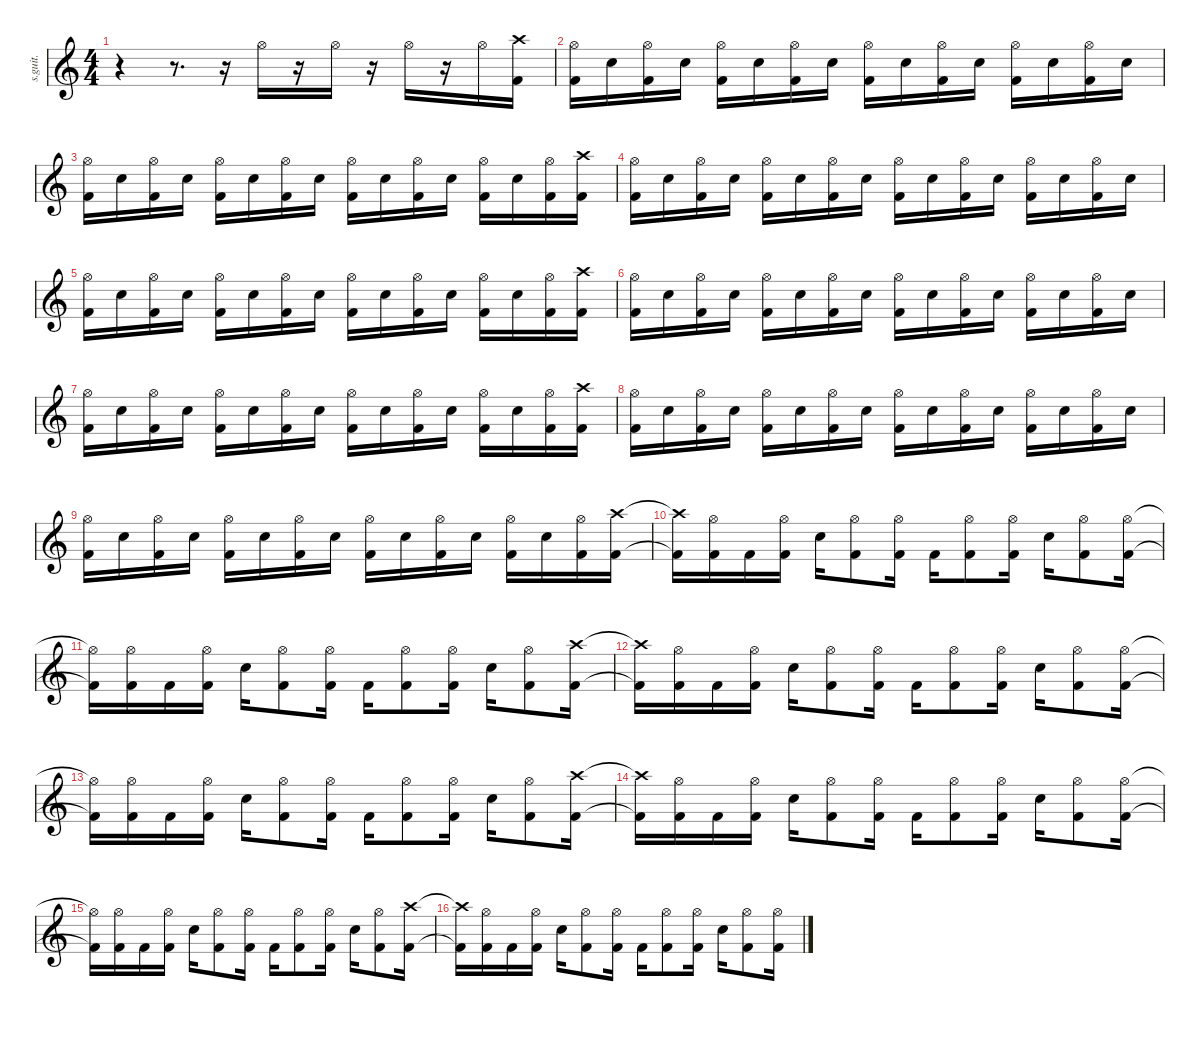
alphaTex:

\defaultSystemsLayout 4
\hideDynamics
\bracketExtendMode nobrackets
\track ("Tomas Haake" "s.guit.") {instrument percussion}
\staff {score}
\articulation defaults
\ts (4 4)
\tempo (110 hide)
\clef g2
\ks c
r.4{dy f} r.8{d} r.16 "Hi-Hat (open)".16{lyrics (0 "") lyrics (1 "") lyrics (2 "") lyrics (3 "") lyrics (4 "")} r.16 "Hi-Hat (open)".16{lyrics (0 "") lyrics (1 "") lyrics (2 "") lyrics (3 "") lyrics (4 "")} r.16 "Hi-Hat (open)".16{lyrics (0 "") lyrics (1 "") lyrics (2 "") lyrics (3 "") lyrics (4 "")} r.16 "Hi-Hat (open)".16{lyrics (0 "") lyrics (1 "") lyrics (2 "") lyrics (3 "") lyrics (4 "")} ("Crash high (hit)" "Kick (hit) 2").16{lyrics (0 "") lyrics (1 "") lyrics (2 "") lyrics (3 "") lyrics (4 "")} |
("Hi-Hat (open)" "Kick (hit) 2").16{lyrics (0 "") lyrics (1 "") lyrics (2 "") lyrics (3 "") lyrics (4 "")} "Snare (hit) 2".16{lyrics (0 "") lyrics (1 "") lyrics (2 "") lyrics (3 "") lyrics (4 "")} ("Hi-Hat (open)" "Kick (hit) 2").16{lyrics (0 "") lyrics (1 "") lyrics (2 "") lyrics (3 "") lyrics (4 "")} "Snare (hit) 2".16{lyrics (0 "") lyrics (1 "") lyrics (2 "") lyrics (3 "") lyrics (4 "")} ("Hi-Hat (open)" "Kick (hit) 2").16{lyrics (0 "") lyrics (1 "") lyrics (2 "") lyrics (3 "") lyrics (4 "")} "Snare (hit) 2".16{lyrics (0 "") lyrics (1 "") lyrics (2 "") lyrics (3 "") lyrics (4 "")} ("Hi-Hat (open)" "Kick (hit) 2").16{lyrics (0 "") lyrics (1 "") lyrics (2 "") lyrics (3 "") lyrics (4 "")} "Snare (hit) 2".16{lyrics (0 "") lyrics (1 "") lyrics (2 "") lyrics (3 "") lyrics (4 "")} ("Hi-Hat (open)" "Kick (hit) 2").16{lyrics (0 "") lyrics (1 "") lyrics (2 "") lyrics (3 "") lyrics (4 "")} "Snare (hit) 2".16{lyrics (0 "") lyrics (1 "") lyrics (2 "") lyrics (3 "") lyrics (4 "")} ("Hi-Hat (open)" "Kick (hit) 2").16{lyrics (0 "") lyrics (1 "") lyrics (2 "") lyrics (3 "") lyrics (4 "")} "Snare (hit) 2".16{lyrics (0 "") lyrics (1 "") lyrics (2 "") lyrics (3 "") lyrics (4 "")} ("Hi-Hat (open)" "Kick (hit) 2").16{lyrics (0 "") lyrics (1 "") lyrics (2 "") lyrics (3 "") lyrics (4 "")} "Snare (hit) 2".16{lyrics (0 "") lyrics (1 "") lyrics (2 "") lyrics (3 "") lyrics (4 "")} ("Hi-Hat (open)" "Kick (hit) 2").16{lyrics (0 "") lyrics (1 "") lyrics (2 "") lyrics (3 "") lyrics (4 "")} "Snare (hit) 2".16{lyrics (0 "") lyrics (1 "") lyrics (2 "") lyrics (3 "") lyrics (4 "")} |
("Hi-Hat (open)" "Kick (hit) 2").16{lyrics (0 "") lyrics (1 "") lyrics (2 "") lyrics (3 "") lyrics (4 "")} "Snare (hit) 2".16{lyrics (0 "") lyrics (1 "") lyrics (2 "") lyrics (3 "") lyrics (4 "")} ("Hi-Hat (open)" "Kick (hit) 2").16{lyrics (0 "") lyrics (1 "") lyrics (2 "") lyrics (3 "") lyrics (4 "")} "Snare (hit) 2".16{lyrics (0 "") lyrics (1 "") lyrics (2 "") lyrics (3 "") lyrics (4 "")} ("Hi-Hat (open)" "Kick (hit) 2").16{lyrics (0 "") lyrics (1 "") lyrics (2 "") lyrics (3 "") lyrics (4 "")} "Snare (hit) 2".16{lyrics (0 "") lyrics (1 "") lyrics (2 "") lyrics (3 "") lyrics (4 "")} ("Hi-Hat (open)" "Kick (hit) 2").16{lyrics (0 "") lyrics (1 "") lyrics (2 "") lyrics (3 "") lyrics (4 "")} "Snare (hit) 2".16{lyrics (0 "") lyrics (1 "") lyrics (2 "") lyrics (3 "") lyrics (4 "")} ("Hi-Hat (open)" "Kick (hit) 2").16{lyrics (0 "") lyrics (1 "") lyrics (2 "") lyrics (3 "") lyrics (4 "")} "Snare (hit) 2".16{lyrics (0 "") lyrics (1 "") lyrics (2 "") lyrics (3 "") lyrics (4 "")} ("Hi-Hat (open)" "Kick (hit) 2").16{lyrics (0 "") lyrics (1 "") lyrics (2 "") lyrics (3 "") lyrics (4 "")} "Snare (hit) 2".16{lyrics (0 "") lyrics (1 "") lyrics (2 "") lyrics (3 "") lyrics (4 "")} ("Hi-Hat (open)" "Kick (hit) 2").16{lyrics (0 "") lyrics (1 "") lyrics (2 "") lyrics (3 "") lyrics (4 "")} "Snare (hit) 2".16{lyrics (0 "") lyrics (1 "") lyrics (2 "") lyrics (3 "") lyrics (4 "")} ("Hi-Hat (open)" "Kick (hit) 2").16{lyrics (0 "") lyrics (1 "") lyrics (2 "") lyrics (3 "") lyrics (4 "")} ("Crash high (hit)" "Kick (hit) 2").16{lyrics (0 "") lyrics (1 "") lyrics (2 "") lyrics (3 "") lyrics (4 "")} |
("Hi-Hat (open)" "Kick (hit) 2").16{lyrics (0 "") lyrics (1 "") lyrics (2 "") lyrics (3 "") lyrics (4 "")} "Snare (hit) 2".16{lyrics (0 "") lyrics (1 "") lyrics (2 "") lyrics (3 "") lyrics (4 "")} ("Hi-Hat (open)" "Kick (hit) 2").16{lyrics (0 "") lyrics (1 "") lyrics (2 "") lyrics (3 "") lyrics (4 "")} "Snare (hit) 2".16{lyrics (0 "") lyrics (1 "") lyrics (2 "") lyrics (3 "") lyrics (4 "")} ("Hi-Hat (open)" "Kick (hit) 2").16{lyrics (0 "") lyrics (1 "") lyrics (2 "") lyrics (3 "") lyrics (4 "")} "Snare (hit) 2".16{lyrics (0 "") lyrics (1 "") lyrics (2 "") lyrics (3 "") lyrics (4 "")} ("Hi-Hat (open)" "Kick (hit) 2").16{lyrics (0 "") lyrics (1 "") lyrics (2 "") lyrics (3 "") lyrics (4 "")} "Snare (hit) 2".16{lyrics (0 "") lyrics (1 "") lyrics (2 "") lyrics (3 "") lyrics (4 "")} ("Hi-Hat (open)" "Kick (hit) 2").16{lyrics (0 "") lyrics (1 "") lyrics (2 "") lyrics (3 "") lyrics (4 "")} "Snare (hit) 2".16{lyrics (0 "") lyrics (1 "") lyrics (2 "") lyrics (3 "") lyrics (4 "")} ("Hi-Hat (open)" "Kick (hit) 2").16{lyrics (0 "") lyrics (1 "") lyrics (2 "") lyrics (3 "") lyrics (4 "")} "Snare (hit) 2".16{lyrics (0 "") lyrics (1 "") lyrics (2 "") lyrics (3 "") lyrics (4 "")} ("Hi-Hat (open)" "Kick (hit) 2").16{lyrics (0 "") lyrics (1 "") lyrics (2 "") lyrics (3 "") lyrics (4 "")} "Snare (hit) 2".16{lyrics (0 "") lyrics (1 "") lyrics (2 "") lyrics (3 "") lyrics (4 "")} ("Hi-Hat (open)" "Kick (hit) 2").16{lyrics (0 "") lyrics (1 "") lyrics (2 "") lyrics (3 "") lyrics (4 "")} "Snare (hit) 2".16{lyrics (0 "") lyrics (1 "") lyrics (2 "") lyrics (3 "") lyrics (4 "")} |
("Hi-Hat (open)" "Kick (hit) 2").16{lyrics (0 "") lyrics (1 "") lyrics (2 "") lyrics (3 "") lyrics (4 "")} "Snare (hit) 2".16{lyrics (0 "") lyrics (1 "") lyrics (2 "") lyrics (3 "") lyrics (4 "")} ("Hi-Hat (open)" "Kick (hit) 2").16{lyrics (0 "") lyrics (1 "") lyrics (2 "") lyrics (3 "") lyrics (4 "")} "Snare (hit) 2".16{lyrics (0 "") lyrics (1 "") lyrics (2 "") lyrics (3 "") lyrics (4 "")} ("Hi-Hat (open)" "Kick (hit) 2").16{lyrics (0 "") lyrics (1 "") lyrics (2 "") lyrics (3 "") lyrics (4 "")} "Snare (hit) 2".16{lyrics (0 "") lyrics (1 "") lyrics (2 "") lyrics (3 "") lyrics (4 "")} ("Hi-Hat (open)" "Kick (hit) 2").16{lyrics (0 "") lyrics (1 "") lyrics (2 "") lyrics (3 "") lyrics (4 "")} "Snare (hit) 2".16{lyrics (0 "") lyrics (1 "") lyrics (2 "") lyrics (3 "") lyrics (4 "")} ("Hi-Hat (open)" "Kick (hit) 2").16{lyrics (0 "") lyrics (1 "") lyrics (2 "") lyrics (3 "") lyrics (4 "")} "Snare (hit) 2".16{lyrics (0 "") lyrics (1 "") lyrics (2 "") lyrics (3 "") lyrics (4 "")} ("Hi-Hat (open)" "Kick (hit) 2").16{lyrics (0 "") lyrics (1 "") lyrics (2 "") lyrics (3 "") lyrics (4 "")} "Snare (hit) 2".16{lyrics (0 "") lyrics (1 "") lyrics (2 "") lyrics (3 "") lyrics (4 "")} ("Hi-Hat (open)" "Kick (hit) 2").16{lyrics (0 "") lyrics (1 "") lyrics (2 "") lyrics (3 "") lyrics (4 "")} "Snare (hit) 2".16{lyrics (0 "") lyrics (1 "") lyrics (2 "") lyrics (3 "") lyrics (4 "")} ("Hi-Hat (open)" "Kick (hit) 2").16{lyrics (0 "") lyrics (1 "") lyrics (2 "") lyrics (3 "") lyrics (4 "")} ("Crash high (hit)" "Kick (hit) 2").16{lyrics (0 "") lyrics (1 "") lyrics (2 "") lyrics (3 "") lyrics (4 "")} |
("Hi-Hat (open)" "Kick (hit) 2").16{lyrics (0 "") lyrics (1 "") lyrics (2 "") lyrics (3 "") lyrics (4 "")} "Snare (hit) 2".16{lyrics (0 "") lyrics (1 "") lyrics (2 "") lyrics (3 "") lyrics (4 "")} ("Hi-Hat (open)" "Kick (hit) 2").16{lyrics (0 "") lyrics (1 "") lyrics (2 "") lyrics (3 "") lyrics (4 "")} "Snare (hit) 2".16{lyrics (0 "") lyrics (1 "") lyrics (2 "") lyrics (3 "") lyrics (4 "")} ("Hi-Hat (open)" "Kick (hit) 2").16{lyrics (0 "") lyrics (1 "") lyrics (2 "") lyrics (3 "") lyrics (4 "")} "Snare (hit) 2".16{lyrics (0 "") lyrics (1 "") lyrics (2 "") lyrics (3 "") lyrics (4 "")} ("Hi-Hat (open)" "Kick (hit) 2").16{lyrics (0 "") lyrics (1 "") lyrics (2 "") lyrics (3 "") lyrics (4 "")} "Snare (hit) 2".16{lyrics (0 "") lyrics (1 "") lyrics (2 "") lyrics (3 "") lyrics (4 "")} ("Hi-Hat (open)" "Kick (hit) 2").16{lyrics (0 "") lyrics (1 "") lyrics (2 "") lyrics (3 "") lyrics (4 "")} "Snare (hit) 2".16{lyrics (0 "") lyrics (1 "") lyrics (2 "") lyrics (3 "") lyrics (4 "")} ("Hi-Hat (open)" "Kick (hit) 2").16{lyrics (0 "") lyrics (1 "") lyrics (2 "") lyrics (3 "") lyrics (4 "")} "Snare (hit) 2".16{lyrics (0 "") lyrics (1 "") lyrics (2 "") lyrics (3 "") lyrics (4 "")} ("Hi-Hat (open)" "Kick (hit) 2").16{lyrics (0 "") lyrics (1 "") lyrics (2 "") lyrics (3 "") lyrics (4 "")} "Snare (hit) 2".16{lyrics (0 "") lyrics (1 "") lyrics (2 "") lyrics (3 "") lyrics (4 "")} ("Hi-Hat (open)" "Kick (hit) 2").16{lyrics (0 "") lyrics (1 "") lyrics (2 "") lyrics (3 "") lyrics (4 "")} "Snare (hit) 2".16{lyrics (0 "") lyrics (1 "") lyrics (2 "") lyrics (3 "") lyrics (4 "")} |
("Hi-Hat (open)" "Kick (hit) 2").16{lyrics (0 "") lyrics (1 "") lyrics (2 "") lyrics (3 "") lyrics (4 "")} "Snare (hit) 2".16{lyrics (0 "") lyrics (1 "") lyrics (2 "") lyrics (3 "") lyrics (4 "")} ("Hi-Hat (open)" "Kick (hit) 2").16{lyrics (0 "") lyrics (1 "") lyrics (2 "") lyrics (3 "") lyrics (4 "")} "Snare (hit) 2".16{lyrics (0 "") lyrics (1 "") lyrics (2 "") lyrics (3 "") lyrics (4 "")} ("Hi-Hat (open)" "Kick (hit) 2").16{lyrics (0 "") lyrics (1 "") lyrics (2 "") lyrics (3 "") lyrics (4 "")} "Snare (hit) 2".16{lyrics (0 "") lyrics (1 "") lyrics (2 "") lyrics (3 "") lyrics (4 "")} ("Hi-Hat (open)" "Kick (hit) 2").16{lyrics (0 "") lyrics (1 "") lyrics (2 "") lyrics (3 "") lyrics (4 "")} "Snare (hit) 2".16{lyrics (0 "") lyrics (1 "") lyrics (2 "") lyrics (3 "") lyrics (4 "")} ("Hi-Hat (open)" "Kick (hit) 2").16{lyrics (0 "") lyrics (1 "") lyrics (2 "") lyrics (3 "") lyrics (4 "")} "Snare (hit) 2".16{lyrics (0 "") lyrics (1 "") lyrics (2 "") lyrics (3 "") lyrics (4 "")} ("Hi-Hat (open)" "Kick (hit) 2").16{lyrics (0 "") lyrics (1 "") lyrics (2 "") lyrics (3 "") lyrics (4 "")} "Snare (hit) 2".16{lyrics (0 "") lyrics (1 "") lyrics (2 "") lyrics (3 "") lyrics (4 "")} ("Hi-Hat (open)" "Kick (hit) 2").16{lyrics (0 "") lyrics (1 "") lyrics (2 "") lyrics (3 "") lyrics (4 "")} "Snare (hit) 2".16{lyrics (0 "") lyrics (1 "") lyrics (2 "") lyrics (3 "") lyrics (4 "")} ("Hi-Hat (open)" "Kick (hit) 2").16{lyrics (0 "") lyrics (1 "") lyrics (2 "") lyrics (3 "") lyrics (4 "")} ("Crash high (hit)" "Kick (hit) 2").16{lyrics (0 "") lyrics (1 "") lyrics (2 "") lyrics (3 "") lyrics (4 "")} |
("Hi-Hat (open)" "Kick (hit) 2").16{lyrics (0 "") lyrics (1 "") lyrics (2 "") lyrics (3 "") lyrics (4 "")} "Snare (hit) 2".16{lyrics (0 "") lyrics (1 "") lyrics (2 "") lyrics (3 "") lyrics (4 "")} ("Hi-Hat (open)" "Kick (hit) 2").16{lyrics (0 "") lyrics (1 "") lyrics (2 "") lyrics (3 "") lyrics (4 "")} "Snare (hit) 2".16{lyrics (0 "") lyrics (1 "") lyrics (2 "") lyrics (3 "") lyrics (4 "")} ("Hi-Hat (open)" "Kick (hit) 2").16{lyrics (0 "") lyrics (1 "") lyrics (2 "") lyrics (3 "") lyrics (4 "")} "Snare (hit) 2".16{lyrics (0 "") lyrics (1 "") lyrics (2 "") lyrics (3 "") lyrics (4 "")} ("Hi-Hat (open)" "Kick (hit) 2").16{lyrics (0 "") lyrics (1 "") lyrics (2 "") lyrics (3 "") lyrics (4 "")} "Snare (hit) 2".16{lyrics (0 "") lyrics (1 "") lyrics (2 "") lyrics (3 "") lyrics (4 "")} ("Hi-Hat (open)" "Kick (hit) 2").16{lyrics (0 "") lyrics (1 "") lyrics (2 "") lyrics (3 "") lyrics (4 "")} "Snare (hit) 2".16{lyrics (0 "") lyrics (1 "") lyrics (2 "") lyrics (3 "") lyrics (4 "")} ("Hi-Hat (open)" "Kick (hit) 2").16{lyrics (0 "") lyrics (1 "") lyrics (2 "") lyrics (3 "") lyrics (4 "")} "Snare (hit) 2".16{lyrics (0 "") lyrics (1 "") lyrics (2 "") lyrics (3 "") lyrics (4 "")} ("Hi-Hat (open)" "Kick (hit) 2").16{lyrics (0 "") lyrics (1 "") lyrics (2 "") lyrics (3 "") lyrics (4 "")} "Snare (hit) 2".16{lyrics (0 "") lyrics (1 "") lyrics (2 "") lyrics (3 "") lyrics (4 "")} ("Hi-Hat (open)" "Kick (hit) 2").16{lyrics (0 "") lyrics (1 "") lyrics (2 "") lyrics (3 "") lyrics (4 "")} "Snare (hit) 2".16{lyrics (0 "") lyrics (1 "") lyrics (2 "") lyrics (3 "") lyrics (4 "")} |
("Hi-Hat (open)" "Kick (hit) 2").16{lyrics (0 "") lyrics (1 "") lyrics (2 "") lyrics (3 "") lyrics (4 "")} "Snare (hit) 2".16{lyrics (0 "") lyrics (1 "") lyrics (2 "") lyrics (3 "") lyrics (4 "")} ("Hi-Hat (open)" "Kick (hit) 2").16{lyrics (0 "") lyrics (1 "") lyrics (2 "") lyrics (3 "") lyrics (4 "")} "Snare (hit) 2".16{lyrics (0 "") lyrics (1 "") lyrics (2 "") lyrics (3 "") lyrics (4 "")} ("Hi-Hat (open)" "Kick (hit) 2").16{lyrics (0 "") lyrics (1 "") lyrics (2 "") lyrics (3 "") lyrics (4 "")} "Snare (hit) 2".16{lyrics (0 "") lyrics (1 "") lyrics (2 "") lyrics (3 "") lyrics (4 "")} ("Hi-Hat (open)" "Kick (hit) 2").16{lyrics (0 "") lyrics (1 "") lyrics (2 "") lyrics (3 "") lyrics (4 "")} "Snare (hit) 2".16{lyrics (0 "") lyrics (1 "") lyrics (2 "") lyrics (3 "") lyrics (4 "")} ("Hi-Hat (open)" "Kick (hit) 2").16{lyrics (0 "") lyrics (1 "") lyrics (2 "") lyrics (3 "") lyrics (4 "")} "Snare (hit) 2".16{lyrics (0 "") lyrics (1 "") lyrics (2 "") lyrics (3 "") lyrics (4 "")} ("Hi-Hat (open)" "Kick (hit) 2").16{lyrics (0 "") lyrics (1 "") lyrics (2 "") lyrics (3 "") lyrics (4 "")} "Snare (hit) 2".16{lyrics (0 "") lyrics (1 "") lyrics (2 "") lyrics (3 "") lyrics (4 "")} ("Hi-Hat (open)" "Kick (hit) 2").16{lyrics (0 "") lyrics (1 "") lyrics (2 "") lyrics (3 "") lyrics (4 "")} "Snare (hit) 2".16{lyrics (0 "") lyrics (1 "") lyrics (2 "") lyrics (3 "") lyrics (4 "")} ("Hi-Hat (open)" "Kick (hit) 2").16{lyrics (0 "") lyrics (1 "") lyrics (2 "") lyrics (3 "") lyrics (4 "")} ("Crash high (hit)" "Kick (hit) 2").16{lyrics (0 "") lyrics (1 "") lyrics (2 "") lyrics (3 "") lyrics (4 "")} |
("Crash high (hit)"{t} "Kick (hit) 2"{t}).16{lyrics (0 "") lyrics (1 "") lyrics (2 "") lyrics (3 "") lyrics (4 "")} ("Hi-Hat (open)" "Kick (hit) 2").16{lyrics (0 "") lyrics (1 "") lyrics (2 "") lyrics (3 "") lyrics (4 "")} "Kick (hit) 2".16{lyrics (0 "") lyrics (1 "") lyrics (2 "") lyrics (3 "") lyrics (4 "")} ("Hi-Hat (open)" "Kick (hit) 2").16{lyrics (0 "") lyrics (1 "") lyrics (2 "") lyrics (3 "") lyrics (4 "")} "Snare (hit) 2".16{lyrics (0 "") lyrics (1 "") lyrics (2 "") lyrics (3 "") lyrics (4 "")} ("Hi-Hat (open)" "Kick (hit) 2").8{lyrics (0 "") lyrics (1 "") lyrics (2 "") lyrics (3 "") lyrics (4 "")} ("Hi-Hat (open)" "Kick (hit) 2").16{lyrics (0 "") lyrics (1 "") lyrics (2 "") lyrics (3 "") lyrics (4 "")} "Kick (hit) 2".16{lyrics (0 "") lyrics (1 "") lyrics (2 "") lyrics (3 "") lyrics (4 "")} ("Hi-Hat (open)" "Kick (hit) 2").8{lyrics (0 "") lyrics (1 "") lyrics (2 "") lyrics (3 "") lyrics (4 "")} ("Hi-Hat (open)" "Kick (hit) 2").16{lyrics (0 "") lyrics (1 "") lyrics (2 "") lyrics (3 "") lyrics (4 "")} "Snare (hit) 2".16{lyrics (0 "") lyrics (1 "") lyrics (2 "") lyrics (3 "") lyrics (4 "")} ("Hi-Hat (open)" "Kick (hit) 2").8{lyrics (0 "") lyrics (1 "") lyrics (2 "") lyrics (3 "") lyrics (4 "")} ("Hi-Hat (open)" "Kick (hit) 2").16{lyrics (0 "") lyrics (1 "") lyrics (2 "") lyrics (3 "") lyrics (4 "")} |
("Hi-Hat (open)"{t} "Kick (hit) 2"{t}).16{lyrics (0 "") lyrics (1 "") lyrics (2 "") lyrics (3 "") lyrics (4 "")} ("Hi-Hat (open)" "Kick (hit) 2").16{lyrics (0 "") lyrics (1 "") lyrics (2 "") lyrics (3 "") lyrics (4 "")} "Kick (hit) 2".16{lyrics (0 "") lyrics (1 "") lyrics (2 "") lyrics (3 "") lyrics (4 "")} ("Hi-Hat (open)" "Kick (hit) 2").16{lyrics (0 "") lyrics (1 "") lyrics (2 "") lyrics (3 "") lyrics (4 "")} "Snare (hit) 2".16{lyrics (0 "") lyrics (1 "") lyrics (2 "") lyrics (3 "") lyrics (4 "")} ("Hi-Hat (open)" "Kick (hit) 2").8{lyrics (0 "") lyrics (1 "") lyrics (2 "") lyrics (3 "") lyrics (4 "")} ("Hi-Hat (open)" "Kick (hit) 2").16{lyrics (0 "") lyrics (1 "") lyrics (2 "") lyrics (3 "") lyrics (4 "")} "Kick (hit) 2".16{lyrics (0 "") lyrics (1 "") lyrics (2 "") lyrics (3 "") lyrics (4 "")} ("Hi-Hat (open)" "Kick (hit) 2").8{lyrics (0 "") lyrics (1 "") lyrics (2 "") lyrics (3 "") lyrics (4 "")} ("Hi-Hat (open)" "Kick (hit) 2").16{lyrics (0 "") lyrics (1 "") lyrics (2 "") lyrics (3 "") lyrics (4 "")} "Snare (hit) 2".16{lyrics (0 "") lyrics (1 "") lyrics (2 "") lyrics (3 "") lyrics (4 "")} ("Hi-Hat (open)" "Kick (hit) 2").8{lyrics (0 "") lyrics (1 "") lyrics (2 "") lyrics (3 "") lyrics (4 "")} ("Crash high (hit)" "Kick (hit) 2").16{lyrics (0 "") lyrics (1 "") lyrics (2 "") lyrics (3 "") lyrics (4 "")} |
("Crash high (hit)"{t} "Kick (hit) 2"{t}).16{lyrics (0 "") lyrics (1 "") lyrics (2 "") lyrics (3 "") lyrics (4 "")} ("Hi-Hat (open)" "Kick (hit) 2").16{lyrics (0 "") lyrics (1 "") lyrics (2 "") lyrics (3 "") lyrics (4 "")} "Kick (hit) 2".16{lyrics (0 "") lyrics (1 "") lyrics (2 "") lyrics (3 "") lyrics (4 "")} ("Hi-Hat (open)" "Kick (hit) 2").16{lyrics (0 "") lyrics (1 "") lyrics (2 "") lyrics (3 "") lyrics (4 "")} "Snare (hit) 2".16{lyrics (0 "") lyrics (1 "") lyrics (2 "") lyrics (3 "") lyrics (4 "")} ("Hi-Hat (open)" "Kick (hit) 2").8{lyrics (0 "") lyrics (1 "") lyrics (2 "") lyrics (3 "") lyrics (4 "")} ("Hi-Hat (open)" "Kick (hit) 2").16{lyrics (0 "") lyrics (1 "") lyrics (2 "") lyrics (3 "") lyrics (4 "")} "Kick (hit) 2".16{lyrics (0 "") lyrics (1 "") lyrics (2 "") lyrics (3 "") lyrics (4 "")} ("Hi-Hat (open)" "Kick (hit) 2").8{lyrics (0 "") lyrics (1 "") lyrics (2 "") lyrics (3 "") lyrics (4 "")} ("Hi-Hat (open)" "Kick (hit) 2").16{lyrics (0 "") lyrics (1 "") lyrics (2 "") lyrics (3 "") lyrics (4 "")} "Snare (hit) 2".16{lyrics (0 "") lyrics (1 "") lyrics (2 "") lyrics (3 "") lyrics (4 "")} ("Hi-Hat (open)" "Kick (hit) 2").8{lyrics (0 "") lyrics (1 "") lyrics (2 "") lyrics (3 "") lyrics (4 "")} ("Hi-Hat (open)" "Kick (hit) 2").16{lyrics (0 "") lyrics (1 "") lyrics (2 "") lyrics (3 "") lyrics (4 "")} |
("Hi-Hat (open)"{t} "Kick (hit) 2"{t}).16{lyrics (0 "") lyrics (1 "") lyrics (2 "") lyrics (3 "") lyrics (4 "")} ("Hi-Hat (open)" "Kick (hit) 2").16{lyrics (0 "") lyrics (1 "") lyrics (2 "") lyrics (3 "") lyrics (4 "")} "Kick (hit) 2".16{lyrics (0 "") lyrics (1 "") lyrics (2 "") lyrics (3 "") lyrics (4 "")} ("Hi-Hat (open)" "Kick (hit) 2").16{lyrics (0 "") lyrics (1 "") lyrics (2 "") lyrics (3 "") lyrics (4 "")} "Snare (hit) 2".16{lyrics (0 "") lyrics (1 "") lyrics (2 "") lyrics (3 "") lyrics (4 "")} ("Hi-Hat (open)" "Kick (hit) 2").8{lyrics (0 "") lyrics (1 "") lyrics (2 "") lyrics (3 "") lyrics (4 "")} ("Hi-Hat (open)" "Kick (hit) 2").16{lyrics (0 "") lyrics (1 "") lyrics (2 "") lyrics (3 "") lyrics (4 "")} "Kick (hit) 2".16{lyrics (0 "") lyrics (1 "") lyrics (2 "") lyrics (3 "") lyrics (4 "")} ("Hi-Hat (open)" "Kick (hit) 2").8{lyrics (0 "") lyrics (1 "") lyrics (2 "") lyrics (3 "") lyrics (4 "")} ("Hi-Hat (open)" "Kick (hit) 2").16{lyrics (0 "") lyrics (1 "") lyrics (2 "") lyrics (3 "") lyrics (4 "")} "Snare (hit) 2".16{lyrics (0 "") lyrics (1 "") lyrics (2 "") lyrics (3 "") lyrics (4 "")} ("Hi-Hat (open)" "Kick (hit) 2").8{lyrics (0 "") lyrics (1 "") lyrics (2 "") lyrics (3 "") lyrics (4 "")} ("Crash high (hit)" "Kick (hit) 2").16{lyrics (0 "") lyrics (1 "") lyrics (2 "") lyrics (3 "") lyrics (4 "")} |
("Crash high (hit)"{t} "Kick (hit) 2"{t}).16{lyrics (0 "") lyrics (1 "") lyrics (2 "") lyrics (3 "") lyrics (4 "")} ("Hi-Hat (open)" "Kick (hit) 2").16{lyrics (0 "") lyrics (1 "") lyrics (2 "") lyrics (3 "") lyrics (4 "")} "Kick (hit) 2".16{lyrics (0 "") lyrics (1 "") lyrics (2 "") lyrics (3 "") lyrics (4 "")} ("Hi-Hat (open)" "Kick (hit) 2").16{lyrics (0 "") lyrics (1 "") lyrics (2 "") lyrics (3 "") lyrics (4 "")} "Snare (hit) 2".16{lyrics (0 "") lyrics (1 "") lyrics (2 "") lyrics (3 "") lyrics (4 "")} ("Hi-Hat (open)" "Kick (hit) 2").8{lyrics (0 "") lyrics (1 "") lyrics (2 "") lyrics (3 "") lyrics (4 "")} ("Hi-Hat (open)" "Kick (hit) 2").16{lyrics (0 "") lyrics (1 "") lyrics (2 "") lyrics (3 "") lyrics (4 "")} "Kick (hit) 2".16{lyrics (0 "") lyrics (1 "") lyrics (2 "") lyrics (3 "") lyrics (4 "")} ("Hi-Hat (open)" "Kick (hit) 2").8{lyrics (0 "") lyrics (1 "") lyrics (2 "") lyrics (3 "") lyrics (4 "")} ("Hi-Hat (open)" "Kick (hit) 2").16{lyrics (0 "") lyrics (1 "") lyrics (2 "") lyrics (3 "") lyrics (4 "")} "Snare (hit) 2".16{lyrics (0 "") lyrics (1 "") lyrics (2 "") lyrics (3 "") lyrics (4 "")} ("Hi-Hat (open)" "Kick (hit) 2").8{lyrics (0 "") lyrics (1 "") lyrics (2 "") lyrics (3 "") lyrics (4 "")} ("Hi-Hat (open)" "Kick (hit) 2").16{lyrics (0 "") lyrics (1 "") lyrics (2 "") lyrics (3 "") lyrics (4 "")} |
("Hi-Hat (open)"{t} "Kick (hit) 2"{t}).16{lyrics (0 "") lyrics (1 "") lyrics (2 "") lyrics (3 "") lyrics (4 "")} ("Hi-Hat (open)" "Kick (hit) 2").16{lyrics (0 "") lyrics (1 "") lyrics (2 "") lyrics (3 "") lyrics (4 "")} "Kick (hit) 2".16{lyrics (0 "") lyrics (1 "") lyrics (2 "") lyrics (3 "") lyrics (4 "")} ("Hi-Hat (open)" "Kick (hit) 2").16{lyrics (0 "") lyrics (1 "") lyrics (2 "") lyrics (3 "") lyrics (4 "")} "Snare (hit) 2".16{lyrics (0 "") lyrics (1 "") lyrics (2 "") lyrics (3 "") lyrics (4 "")} ("Hi-Hat (open)" "Kick (hit) 2").8{lyrics (0 "") lyrics (1 "") lyrics (2 "") lyrics (3 "") lyrics (4 "")} ("Hi-Hat (open)" "Kick (hit) 2").16{lyrics (0 "") lyrics (1 "") lyrics (2 "") lyrics (3 "") lyrics (4 "")} "Kick (hit) 2".16{lyrics (0 "") lyrics (1 "") lyrics (2 "") lyrics (3 "") lyrics (4 "")} ("Hi-Hat (open)" "Kick (hit) 2").8{lyrics (0 "") lyrics (1 "") lyrics (2 "") lyrics (3 "") lyrics (4 "")} ("Hi-Hat (open)" "Kick (hit) 2").16{lyrics (0 "") lyrics (1 "") lyrics (2 "") lyrics (3 "") lyrics (4 "")} "Snare (hit) 2".16{lyrics (0 "") lyrics (1 "") lyrics (2 "") lyrics (3 "") lyrics (4 "")} ("Hi-Hat (open)" "Kick (hit) 2").8{lyrics (0 "") lyrics (1 "") lyrics (2 "") lyrics (3 "") lyrics (4 "")} ("Crash high (hit)" "Kick (hit) 2").16{lyrics (0 "") lyrics (1 "") lyrics (2 "") lyrics (3 "") lyrics (4 "")} |
("Crash high (hit)"{t} "Kick (hit) 2"{t}).16{lyrics (0 "") lyrics (1 "") lyrics (2 "") lyrics (3 "") lyrics (4 "")} ("Hi-Hat (open)" "Kick (hit) 2").16{lyrics (0 "") lyrics (1 "") lyrics (2 "") lyrics (3 "") lyrics (4 "")} "Kick (hit) 2".16{lyrics (0 "") lyrics (1 "") lyrics (2 "") lyrics (3 "") lyrics (4 "")} ("Hi-Hat (open)" "Kick (hit) 2").16{lyrics (0 "") lyrics (1 "") lyrics (2 "") lyrics (3 "") lyrics (4 "")} "Snare (hit) 2".16{lyrics (0 "") lyrics (1 "") lyrics (2 "") lyrics (3 "") lyrics (4 "")} ("Hi-Hat (open)" "Kick (hit) 2").8{lyrics (0 "") lyrics (1 "") lyrics (2 "") lyrics (3 "") lyrics (4 "")} ("Hi-Hat (open)" "Kick (hit) 2").16{lyrics (0 "") lyrics (1 "") lyrics (2 "") lyrics (3 "") lyrics (4 "")} "Kick (hit) 2".16{lyrics (0 "") lyrics (1 "") lyrics (2 "") lyrics (3 "") lyrics (4 "")} ("Hi-Hat (open)" "Kick (hit) 2").8{lyrics (0 "") lyrics (1 "") lyrics (2 "") lyrics (3 "") lyrics (4 "")} ("Hi-Hat (open)" "Kick (hit) 2").16{lyrics (0 "") lyrics (1 "") lyrics (2 "") lyrics (3 "") lyrics (4 "")} "Snare (hit) 2".16{lyrics (0 "") lyrics (1 "") lyrics (2 "") lyrics (3 "") lyrics (4 "")} ("Hi-Hat (open)" "Kick (hit) 2").8{lyrics (0 "") lyrics (1 "") lyrics (2 "") lyrics (3 "") lyrics (4 "")} ("Hi-Hat (open)" "Kick (hit) 2").16{lyrics (0 "") lyrics (1 "") lyrics (2 "") lyrics (3 "") lyrics (4 "")}
